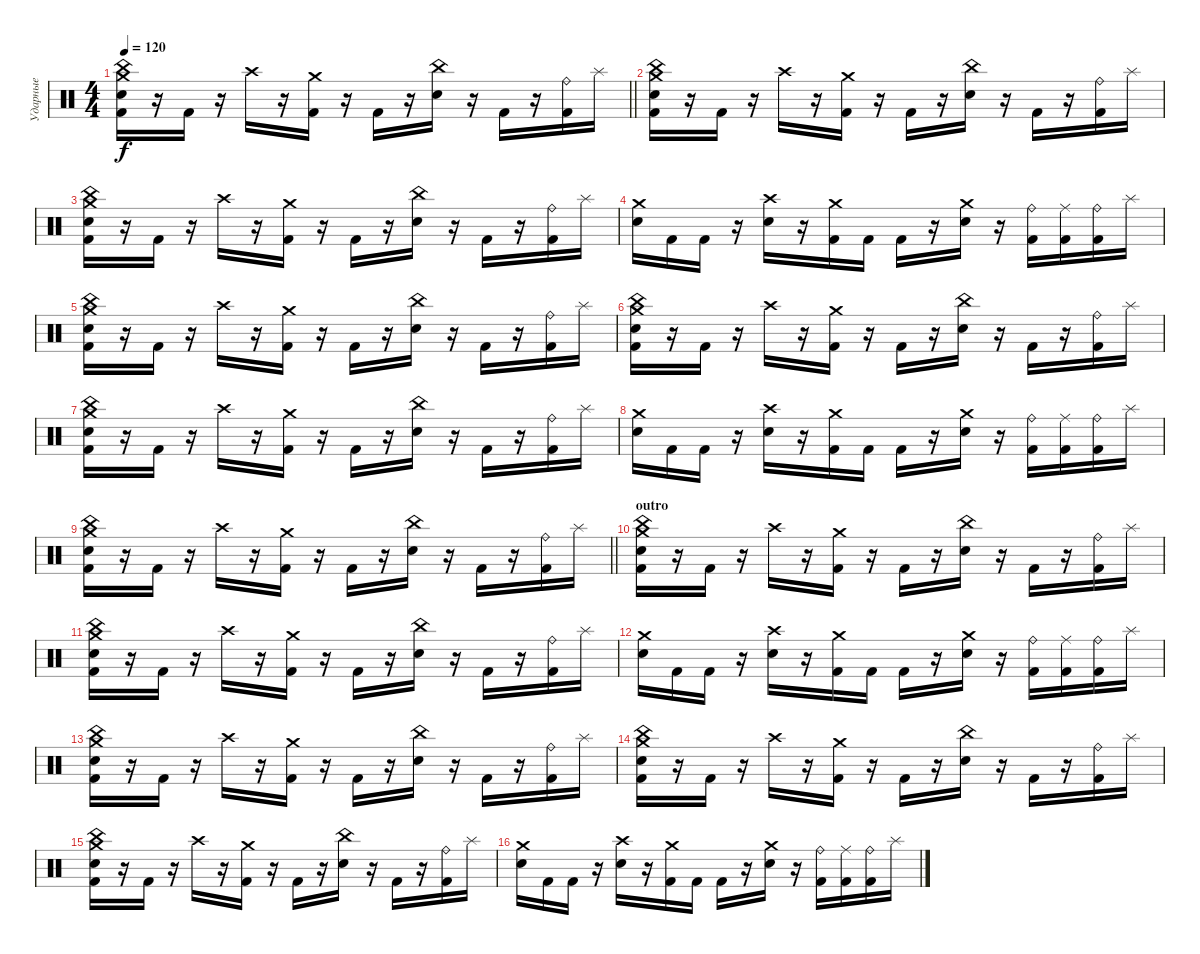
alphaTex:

\track ("Ударные" "Ударные") {instrument percussion}
\staff {score}
\articulation defaults
\ts (4 4)
\tempo 120
\clef neutral
\barLineRight lightlight
\ks c
("Crash medium (hit)" "China (hit)" "Electric Snare (hit)" "Kick (hit) 2").16{dy f} r.16 "Kick (hit) 2".16 r.16 "Crash high (hit)".16 r.16 ("Crash medium (hit)" "Kick (hit) 2").16 r.16 "Kick (hit) 2".16 r.16 ("China (hit)" "Electric Snare (hit)").16 r.16 "Kick (hit) 2".16 r.16 ("Ride (bell)" "Kick (hit) 2").16 "Splash (hit)".16 |
("Crash medium (hit)" "China (hit)" "Electric Snare (hit)" "Kick (hit) 2").16 r.16 "Kick (hit) 2".16 r.16 "Crash high (hit)".16 r.16 ("Crash medium (hit)" "Kick (hit) 2").16 r.16 "Kick (hit) 2".16 r.16 ("China (hit)" "Electric Snare (hit)").16 r.16 "Kick (hit) 2".16 r.16 ("Ride (bell)" "Kick (hit) 2").16 "Splash (hit)".16 |
("Crash medium (hit)" "China (hit)" "Electric Snare (hit)" "Kick (hit) 2").16 r.16 "Kick (hit) 2".16 r.16 "Crash high (hit)".16 r.16 ("Crash medium (hit)" "Kick (hit) 2").16 r.16 "Kick (hit) 2".16 r.16 ("China (hit)" "Electric Snare (hit)").16 r.16 "Kick (hit) 2".16 r.16 ("Ride (bell)" "Kick (hit) 2").16 "Splash (hit)".16 |
("Crash medium (hit)" "Electric Snare (hit)").16 "Kick (hit) 2".16 "Kick (hit) 2".16 r.16 ("Crash high (hit)" "Electric Snare (hit)").16 r.16 ("Crash medium (hit)" "Kick (hit) 2").16 "Kick (hit) 2".16 "Kick (hit) 2".16 r.16 ("Crash medium (hit)" "Electric Snare (hit)").16 r.16 ("Ride (bell)" "Kick (hit) 2").16 ("Ride (middle)" "Kick (hit) 2").16 ("Ride (bell)" "Kick (hit) 2").16 "Splash (hit)".16 |
("Crash medium (hit)" "China (hit)" "Electric Snare (hit)" "Kick (hit) 2").16 r.16 "Kick (hit) 2".16 r.16 "Crash high (hit)".16 r.16 ("Crash medium (hit)" "Kick (hit) 2").16 r.16 "Kick (hit) 2".16 r.16 ("China (hit)" "Electric Snare (hit)").16 r.16 "Kick (hit) 2".16 r.16 ("Ride (bell)" "Kick (hit) 2").16 "Splash (hit)".16 |
("Crash medium (hit)" "China (hit)" "Electric Snare (hit)" "Kick (hit) 2").16 r.16 "Kick (hit) 2".16 r.16 "Crash high (hit)".16 r.16 ("Crash medium (hit)" "Kick (hit) 2").16 r.16 "Kick (hit) 2".16 r.16 ("China (hit)" "Electric Snare (hit)").16 r.16 "Kick (hit) 2".16 r.16 ("Ride (bell)" "Kick (hit) 2").16 "Splash (hit)".16 |
("Crash medium (hit)" "China (hit)" "Electric Snare (hit)" "Kick (hit) 2").16 r.16 "Kick (hit) 2".16 r.16 "Crash high (hit)".16 r.16 ("Crash medium (hit)" "Kick (hit) 2").16 r.16 "Kick (hit) 2".16 r.16 ("China (hit)" "Electric Snare (hit)").16 r.16 "Kick (hit) 2".16 r.16 ("Ride (bell)" "Kick (hit) 2").16 "Splash (hit)".16 |
("Crash medium (hit)" "Electric Snare (hit)").16 "Kick (hit) 2".16 "Kick (hit) 2".16 r.16 ("Crash high (hit)" "Electric Snare (hit)").16 r.16 ("Crash medium (hit)" "Kick (hit) 2").16 "Kick (hit) 2".16 "Kick (hit) 2".16 r.16 ("Crash medium (hit)" "Electric Snare (hit)").16 r.16 ("Ride (bell)" "Kick (hit) 2").16 ("Ride (middle)" "Kick (hit) 2").16 ("Ride (bell)" "Kick (hit) 2").16 "Splash (hit)".16 |
\barLineRight lightlight
("Crash medium (hit)" "China (hit)" "Electric Snare (hit)" "Kick (hit) 2").16 r.16 "Kick (hit) 2".16 r.16 "Crash high (hit)".16 r.16 ("Crash medium (hit)" "Kick (hit) 2").16 r.16 "Kick (hit) 2".16 r.16 ("China (hit)" "Electric Snare (hit)").16 r.16 "Kick (hit) 2".16 r.16 ("Ride (bell)" "Kick (hit) 2").16 "Splash (hit)".16 |
\section ("" "outro")
("Crash medium (hit)" "China (hit)" "Electric Snare (hit)" "Kick (hit) 2").16 r.16 "Kick (hit) 2".16 r.16 "Crash high (hit)".16 r.16 ("Crash medium (hit)" "Kick (hit) 2").16 r.16 "Kick (hit) 2".16 r.16 ("China (hit)" "Electric Snare (hit)").16 r.16 "Kick (hit) 2".16 r.16 ("Ride (bell)" "Kick (hit) 2").16 "Splash (hit)".16 |
("Crash medium (hit)" "China (hit)" "Electric Snare (hit)" "Kick (hit) 2").16 r.16 "Kick (hit) 2".16 r.16 "Crash high (hit)".16 r.16 ("Crash medium (hit)" "Kick (hit) 2").16 r.16 "Kick (hit) 2".16 r.16 ("China (hit)" "Electric Snare (hit)").16 r.16 "Kick (hit) 2".16 r.16 ("Ride (bell)" "Kick (hit) 2").16 "Splash (hit)".16 |
("Crash medium (hit)" "Electric Snare (hit)").16 "Kick (hit) 2".16 "Kick (hit) 2".16 r.16 ("Crash high (hit)" "Electric Snare (hit)").16 r.16 ("Crash medium (hit)" "Kick (hit) 2").16 "Kick (hit) 2".16 "Kick (hit) 2".16 r.16 ("Crash medium (hit)" "Electric Snare (hit)").16 r.16 ("Ride (bell)" "Kick (hit) 2").16 ("Ride (middle)" "Kick (hit) 2").16 ("Ride (bell)" "Kick (hit) 2").16 "Splash (hit)".16 |
("Crash medium (hit)" "China (hit)" "Electric Snare (hit)" "Kick (hit) 2").16 r.16 "Kick (hit) 2".16 r.16 "Crash high (hit)".16 r.16 ("Crash medium (hit)" "Kick (hit) 2").16 r.16 "Kick (hit) 2".16 r.16 ("China (hit)" "Electric Snare (hit)").16 r.16 "Kick (hit) 2".16 r.16 ("Ride (bell)" "Kick (hit) 2").16 "Splash (hit)".16 |
("Crash medium (hit)" "China (hit)" "Electric Snare (hit)" "Kick (hit) 2").16 r.16 "Kick (hit) 2".16 r.16 "Crash high (hit)".16 r.16 ("Crash medium (hit)" "Kick (hit) 2").16 r.16 "Kick (hit) 2".16 r.16 ("China (hit)" "Electric Snare (hit)").16 r.16 "Kick (hit) 2".16 r.16 ("Ride (bell)" "Kick (hit) 2").16 "Splash (hit)".16 |
("Crash medium (hit)" "China (hit)" "Electric Snare (hit)" "Kick (hit) 2").16 r.16 "Kick (hit) 2".16 r.16 "Crash high (hit)".16 r.16 ("Crash medium (hit)" "Kick (hit) 2").16 r.16 "Kick (hit) 2".16 r.16 ("China (hit)" "Electric Snare (hit)").16 r.16 "Kick (hit) 2".16 r.16 ("Ride (bell)" "Kick (hit) 2").16 "Splash (hit)".16 |
("Crash medium (hit)" "Electric Snare (hit)").16 "Kick (hit) 2".16 "Kick (hit) 2".16 r.16 ("Crash high (hit)" "Electric Snare (hit)").16 r.16 ("Crash medium (hit)" "Kick (hit) 2").16 "Kick (hit) 2".16 "Kick (hit) 2".16 r.16 ("Crash medium (hit)" "Electric Snare (hit)").16 r.16 ("Ride (bell)" "Kick (hit) 2").16 ("Ride (middle)" "Kick (hit) 2").16 ("Ride (bell)" "Kick (hit) 2").16 "Splash (hit)".16
